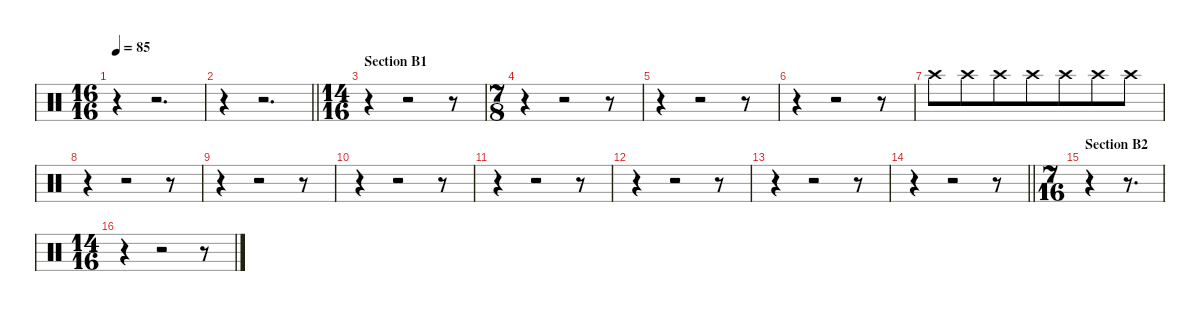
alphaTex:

\defaultSystemsLayout 4
\hideDynamics
\bracketExtendMode nobrackets
\singleTrackTrackNamePolicy hidden
\multiTrackTrackNamePolicy hidden
\firstSystemTrackNameMode fullname
\firstSystemTrackNameOrientation horizontal
\otherSystemsTrackNameOrientation horizontal
\track ("Drums" "drm.") {instrument percussion}
\staff {score}
\articulation defaults
\ts (16 16)
\tempo 85
\clef neutral
\ks c
r.4{dy f beam Down} r.2{d beam Down} |
\barLineRight lightlight
r.4{beam Down} r.2{d beam Down} |
\ts (14 16)
\beaming (8 7)
\section ("" "Section B1")
r.4{beam Down} r.2{beam Down} r.8{beam Down} |
\ts (7 8)
\beaming (8 7)
r.4{beam Down} r.2{beam Down} r.8{beam Down} |
r.4{beam Down} r.2{beam Down} r.8{beam Down} |
r.4{beam Down} r.2{beam Down} r.8{beam Down} |
"Crash high (hit)".8{beam Down} "Crash high (hit)".8{beam Down} "Crash high (hit)".8{beam Down} "Crash high (hit)".8{beam Down} "Crash high (hit)".8{beam Down} "Crash high (hit)".8{beam Down} "Crash high (hit)".8{beam Down} |
r.4{beam Down} r.2{beam Down} r.8{beam Down} |
r.4{beam Down} r.2{beam Down} r.8{beam Down} |
r.4{beam Down} r.2{beam Down} r.8{beam Down} |
r.4{beam Down} r.2{beam Down} r.8{beam Down} |
r.4{beam Down} r.2{beam Down} r.8{beam Down} |
r.4{beam Down} r.2{beam Down} r.8{beam Down} |
\barLineRight lightlight
r.4{beam Down} r.2{beam Down} r.8{beam Down} |
\ts (7 16)
\beaming (8 3)
\section ("" "Section B2")
r.4{beam Down} r.8{d beam Down} |
\ts (14 16)
\beaming (8 7)
r.4{beam Down} r.2{beam Down} r.8{beam Down}
